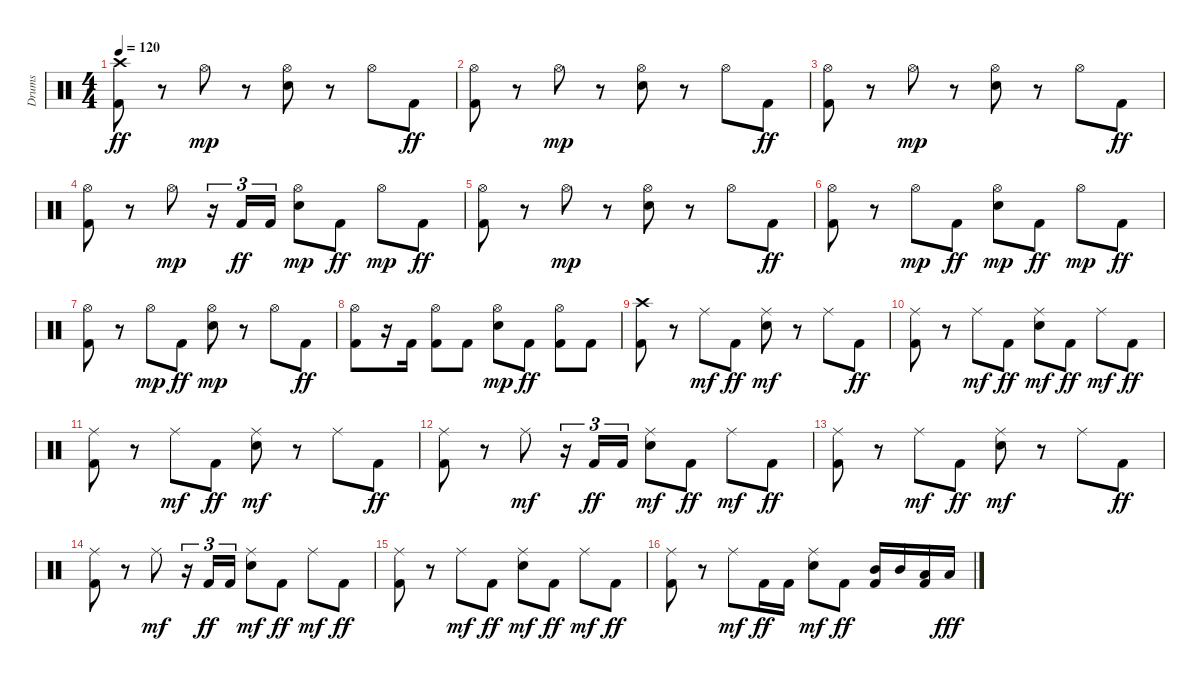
\track ("Drums" "Drums") {instrument percussion}
\staff {score}
\articulation defaults
\ts (4 4)
\tempo 120
\clef neutral
\ks c
("Crash high (hit)" "Kick (hit) 2").8{dy ff} r.8 "Hi-Hat (open)".8{dy mp} r.8 ("Hi-Hat (open)" "Electric Snare (hit)").8 r.8 "Hi-Hat (open)".8 "Kick (hit) 2".8{dy ff} |
("Hi-Hat (open)" "Kick (hit) 2").8 r.8 "Hi-Hat (open)".8{dy mp} r.8 ("Hi-Hat (open)" "Electric Snare (hit)").8 r.8 "Hi-Hat (open)".8 "Kick (hit) 2".8{dy ff} |
("Hi-Hat (open)" "Kick (hit) 2").8 r.8 "Hi-Hat (open)".8{dy mp} r.8 ("Hi-Hat (open)" "Electric Snare (hit)").8 r.8 "Hi-Hat (open)".8 "Kick (hit) 2".8{dy ff} |
("Hi-Hat (open)" "Kick (hit) 2").8 r.8 "Hi-Hat (open)".8{dy mp} r.16{tu (3 2)} "Kick (hit) 2".16{tu (3 2) dy ff} "Kick (hit) 2".16{tu (3 2)} ("Hi-Hat (open)" "Electric Snare (hit)").8{dy mp} "Kick (hit) 2".8{dy ff} "Hi-Hat (open)".8{dy mp} "Kick (hit) 2".8{dy ff} |
("Hi-Hat (open)" "Kick (hit) 2").8 r.8 "Hi-Hat (open)".8{dy mp} r.8 ("Hi-Hat (open)" "Electric Snare (hit)").8 r.8 "Hi-Hat (open)".8 "Kick (hit) 2".8{dy ff} |
("Hi-Hat (open)" "Kick (hit) 2").8 r.8 "Hi-Hat (open)".8{dy mp} "Kick (hit) 2".8{dy ff} ("Hi-Hat (open)" "Electric Snare (hit)").8{dy mp} "Kick (hit) 2".8{dy ff} "Hi-Hat (open)".8{dy mp} "Kick (hit) 2".8{dy ff} |
("Hi-Hat (open)" "Kick (hit) 2").8 r.8 "Hi-Hat (open)".8{dy mp} "Kick (hit) 2".8{dy ff} ("Hi-Hat (open)" "Electric Snare (hit)").8{dy mp} r.8 "Hi-Hat (open)".8 "Kick (hit) 2".8{dy ff} |
("Hi-Hat (open)" "Kick (hit) 2").8 r.16 "Kick (hit) 2".16 ("Hi-Hat (open)" "Kick (hit) 2").8 "Kick (hit) 2".8 ("Hi-Hat (open)" "Electric Snare (hit)").8{dy mp} "Kick (hit) 2".8{dy ff} ("Hi-Hat (open)" "Kick (hit) 2").8 "Kick (hit) 2".8 |
\section ("" "")
("Crash high (hit)" "Kick (hit) 2").8 r.8 "Ride (middle)".8{dy mf} "Kick (hit) 2".8{dy ff} ("Ride (middle)" "Electric Snare (hit)").8{dy mf} r.8 "Ride (middle)".8 "Kick (hit) 2".8{dy ff} |
("Ride (middle)" "Kick (hit) 2").8 r.8 "Ride (middle)".8{dy mf} "Kick (hit) 2".8{dy ff} ("Ride (middle)" "Electric Snare (hit)").8{dy mf} "Kick (hit) 2".8{dy ff} "Ride (middle)".8{dy mf} "Kick (hit) 2".8{dy ff} |
("Ride (middle)" "Kick (hit) 2").8 r.8 "Ride (middle)".8{dy mf} "Kick (hit) 2".8{dy ff} ("Ride (middle)" "Electric Snare (hit)").8{dy mf} r.8 "Ride (middle)".8 "Kick (hit) 2".8{dy ff} |
("Ride (middle)" "Kick (hit) 2").8 r.8 "Ride (middle)".8{dy mf} r.16{tu (3 2)} "Kick (hit) 2".16{tu (3 2) dy ff} "Kick (hit) 2".16{tu (3 2)} ("Ride (middle)" "Electric Snare (hit)").8{dy mf} "Kick (hit) 2".8{dy ff} "Ride (middle)".8{dy mf} "Kick (hit) 2".8{dy ff} |
("Ride (middle)" "Kick (hit) 2").8 r.8 "Ride (middle)".8{dy mf} "Kick (hit) 2".8{dy ff} ("Ride (middle)" "Electric Snare (hit)").8{dy mf} r.8 "Ride (middle)".8 "Kick (hit) 2".8{dy ff} |
("Ride (middle)" "Kick (hit) 2").8 r.8 "Ride (middle)".8{dy mf} r.16{tu (3 2)} "Kick (hit) 2".16{tu (3 2) dy ff} "Kick (hit) 2".16{tu (3 2)} ("Ride (middle)" "Electric Snare (hit)").8{dy mf} "Kick (hit) 2".8{dy ff} "Ride (middle)".8{dy mf} "Kick (hit) 2".8{dy ff} |
("Ride (middle)" "Kick (hit) 2").8 r.8 "Ride (middle)".8{dy mf} "Kick (hit) 2".8{dy ff} ("Ride (middle)" "Electric Snare (hit)").8{dy mf} "Kick (hit) 2".8{dy ff} "Ride (middle)".8{dy mf} "Kick (hit) 2".8{dy ff} |
("Ride (middle)" "Kick (hit) 2").8 r.8 "Ride (middle)".8{dy mf} "Kick (hit) 2".16{dy ff} "Kick (hit) 2".16 ("Ride (middle)" "Electric Snare (hit)").8{dy mf} "Kick (hit) 2".8{dy ff} ("Mid Tom (hit)" "Kick (hit) 2").16 "Mid Tom (hit)".16 ("Low Tom (hit)" "Kick (hit) 2").16 "Low Tom (hit)".16{dy fff}
